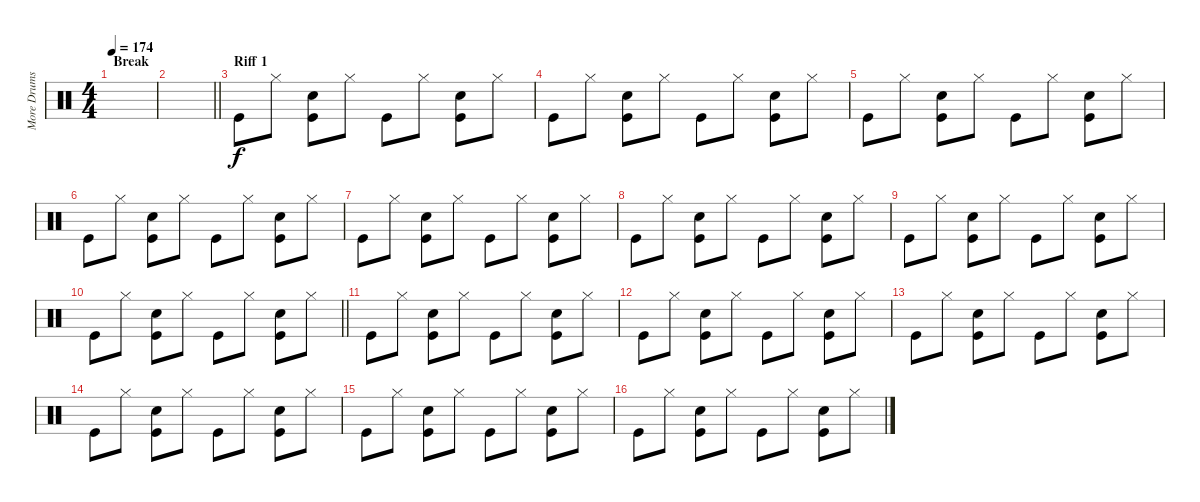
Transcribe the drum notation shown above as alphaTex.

\track ("More Drums" "More Drums") {instrument percussion}
\staff {score}
\articulation defaults
\ts (4 4)
\section ("" "Break")
\tempo 174
\clef neutral
\ks c
|
\barLineRight lightlight
|
\section ("" "Riff 1")
"Kick (hit)".8 "Hi-Hat (closed)".8 ("Kick (hit)" "Electric Snare (hit)").8 "Hi-Hat (closed)".8 "Kick (hit)".8 "Hi-Hat (closed)".8 ("Kick (hit)" "Electric Snare (hit)").8 "Hi-Hat (closed)".8 |
"Kick (hit)".8 "Hi-Hat (closed)".8 ("Kick (hit)" "Electric Snare (hit)").8 "Hi-Hat (closed)".8 "Kick (hit)".8 "Hi-Hat (closed)".8 ("Kick (hit)" "Electric Snare (hit)").8 "Hi-Hat (closed)".8 |
"Kick (hit)".8 "Hi-Hat (closed)".8 ("Kick (hit)" "Electric Snare (hit)").8 "Hi-Hat (closed)".8 "Kick (hit)".8 "Hi-Hat (closed)".8 ("Kick (hit)" "Electric Snare (hit)").8 "Hi-Hat (closed)".8 |
"Kick (hit)".8 "Hi-Hat (closed)".8 ("Kick (hit)" "Electric Snare (hit)").8 "Hi-Hat (closed)".8 "Kick (hit)".8 "Hi-Hat (closed)".8 ("Kick (hit)" "Electric Snare (hit)").8 "Hi-Hat (closed)".8 |
"Kick (hit)".8 "Hi-Hat (closed)".8 ("Kick (hit)" "Electric Snare (hit)").8 "Hi-Hat (closed)".8 "Kick (hit)".8 "Hi-Hat (closed)".8 ("Kick (hit)" "Electric Snare (hit)").8 "Hi-Hat (closed)".8 |
"Kick (hit)".8 "Hi-Hat (closed)".8 ("Kick (hit)" "Electric Snare (hit)").8 "Hi-Hat (closed)".8 "Kick (hit)".8 "Hi-Hat (closed)".8 ("Kick (hit)" "Electric Snare (hit)").8 "Hi-Hat (closed)".8 |
"Kick (hit)".8 "Hi-Hat (closed)".8 ("Kick (hit)" "Electric Snare (hit)").8 "Hi-Hat (closed)".8 "Kick (hit)".8 "Hi-Hat (closed)".8 ("Kick (hit)" "Electric Snare (hit)").8 "Hi-Hat (closed)".8 |
\barLineRight lightlight "Kick (hit)".8 "Hi-Hat (closed)".8
("Kick (hit)" "Electric Snare (hit)").8 "Hi-Hat (closed)".8 "Kick (hit)".8 "Hi-Hat (closed)".8 ("Kick (hit)" "Electric Snare (hit)").8 "Hi-Hat (closed)".8 |
"Kick (hit)".8 "Hi-Hat (closed)".8 ("Kick (hit)" "Electric Snare (hit)").8 "Hi-Hat (closed)".8 "Kick (hit)".8 "Hi-Hat (closed)".8 ("Kick (hit)" "Electric Snare (hit)").8 "Hi-Hat (closed)".8 |
"Kick (hit)".8 "Hi-Hat (closed)".8 ("Kick (hit)" "Electric Snare (hit)").8 "Hi-Hat (closed)".8 "Kick (hit)".8 "Hi-Hat (closed)".8 ("Kick (hit)" "Electric Snare (hit)").8 "Hi-Hat (closed)".8 |
"Kick (hit)".8 "Hi-Hat (closed)".8 ("Kick (hit)" "Electric Snare (hit)").8 "Hi-Hat (closed)".8 "Kick (hit)".8 "Hi-Hat (closed)".8 ("Kick (hit)" "Electric Snare (hit)").8 "Hi-Hat (closed)".8 |
"Kick (hit)".8 "Hi-Hat (closed)".8 ("Kick (hit)" "Electric Snare (hit)").8 "Hi-Hat (closed)".8 "Kick (hit)".8 "Hi-Hat (closed)".8 ("Kick (hit)" "Electric Snare (hit)").8 "Hi-Hat (closed)".8 |
"Kick (hit)".8 "Hi-Hat (closed)".8 ("Kick (hit)" "Electric Snare (hit)").8 "Hi-Hat (closed)".8 "Kick (hit)".8 "Hi-Hat (closed)".8 ("Kick (hit)" "Electric Snare (hit)").8 "Hi-Hat (closed)".8 |
"Kick (hit)".8 "Hi-Hat (closed)".8 ("Kick (hit)" "Electric Snare (hit)").8 "Hi-Hat (closed)".8 "Kick (hit)".8 "Hi-Hat (closed)".8 ("Kick (hit)" "Electric Snare (hit)").8 "Hi-Hat (closed)".8
